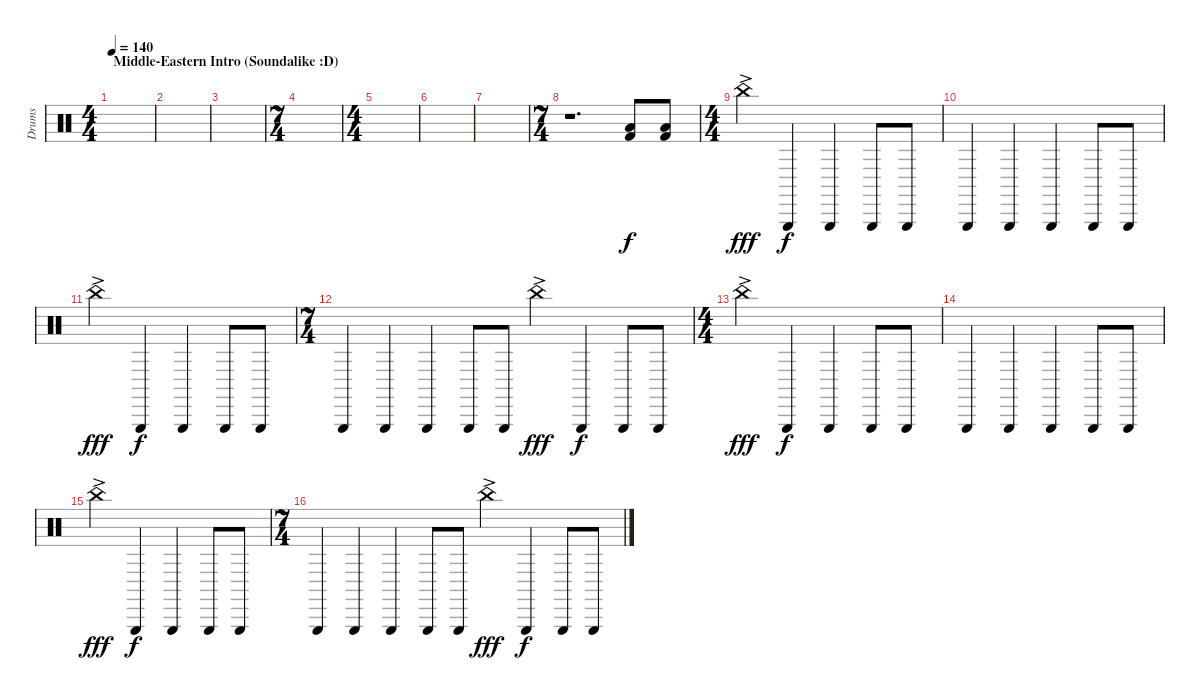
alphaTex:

\track ("Drums" "Drums") {instrument percussion}
\staff {score}
\articulation defaults
\ts (4 4)
\section ("" "Middle-Eastern Intro (Soundalike :D)")
\tempo 140
\clef neutral
\ks c
|
|
|
\ts (7 4)
|
\ts (4 4)
|
|
|
\ts (7 4)
r.1{d} ("Low Floor Tom (hit)" "Kick (hit) 2").8 ("Low Floor Tom (hit)" "Kick (hit) 2").8 |
\ts (4 4)
"China (hit)"{ac}.4{dy fff} "Triangle (hit)".4{dy f} "Triangle (hit)".4 "Triangle (hit)".8 "Triangle (hit)".8 |
"Triangle (hit)".4 "Triangle (hit)".4 "Triangle (hit)".4 "Triangle (hit)".8 "Triangle (hit)".8 |
"China (hit)"{ac}.4{dy fff} "Triangle (hit)".4{dy f} "Triangle (hit)".4 "Triangle (hit)".8 "Triangle (hit)".8 |
\ts (7 4)
"Triangle (hit)".4 "Triangle (hit)".4 "Triangle (hit)".4 "Triangle (hit)".8 "Triangle (hit)".8 "China (hit)"{ac}.4{dy fff} "Triangle (hit)".4{dy f} "Triangle (hit)".8 "Triangle (hit)".8 |
\ts (4 4)
"China (hit)"{ac}.4{dy fff} "Triangle (hit)".4{dy f} "Triangle (hit)".4 "Triangle (hit)".8 "Triangle (hit)".8 |
"Triangle (hit)".4 "Triangle (hit)".4 "Triangle (hit)".4 "Triangle (hit)".8 "Triangle (hit)".8 |
"China (hit)"{ac}.4{dy fff} "Triangle (hit)".4{dy f} "Triangle (hit)".4 "Triangle (hit)".8 "Triangle (hit)".8 |
\ts (7 4)
"Triangle (hit)".4 "Triangle (hit)".4 "Triangle (hit)".4 "Triangle (hit)".8 "Triangle (hit)".8 "China (hit)"{ac}.4{dy fff} "Triangle (hit)".4{dy f} "Triangle (hit)".8 "Triangle (hit)".8
